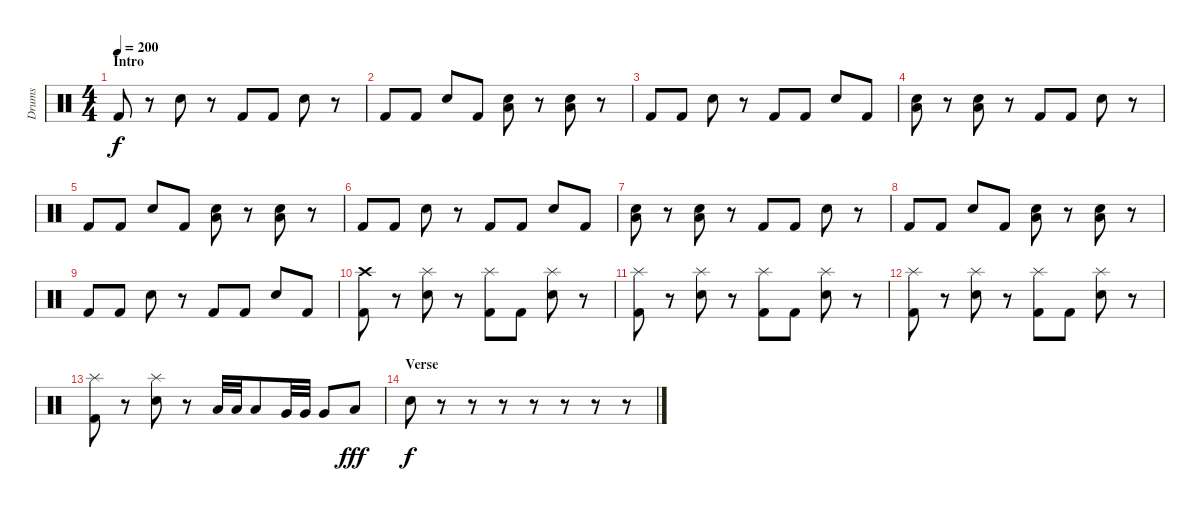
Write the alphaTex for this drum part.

\track ("Drums" "Drums") {instrument percussion}
\staff {score}
\articulation defaults
\ts (4 4)
\section ("" "Intro")
\tempo 200
\clef neutral
\ks c "Kick (hit) 2".8{dy f}
r.8 "Electric Snare (hit)".8 r.8 "Kick (hit) 2".8 "Kick (hit) 2".8 "Electric Snare (hit)".8 r.8 |
"Kick (hit) 2".8 "Kick (hit) 2".8 "Electric Snare (hit)".8 "Kick (hit) 2".8 ("Electric Snare (hit)" "Low Floor Tom (hit)").8 r.8 ("Electric Snare (hit)" "Low Floor Tom (hit)").8 r.8 |
"Kick (hit) 2".8 "Kick (hit) 2".8 "Electric Snare (hit)".8 r.8 "Kick (hit) 2".8 "Kick (hit) 2".8 "Electric Snare (hit)".8 "Kick (hit) 2".8 |
("Electric Snare (hit)" "Low Floor Tom (hit)").8 r.8 ("Electric Snare (hit)" "Low Floor Tom (hit)").8 r.8 "Kick (hit) 2".8 "Kick (hit) 2".8 "Electric Snare (hit)".8 r.8 |
"Kick (hit) 2".8 "Kick (hit) 2".8 "Electric Snare (hit)".8 "Kick (hit) 2".8 ("Electric Snare (hit)" "Low Floor Tom (hit)").8 r.8 ("Electric Snare (hit)" "Low Floor Tom (hit)").8 r.8 |
"Kick (hit) 2".8 "Kick (hit) 2".8 "Electric Snare (hit)".8 r.8 "Kick (hit) 2".8 "Kick (hit) 2".8 "Electric Snare (hit)".8 "Kick (hit) 2".8 |
("Electric Snare (hit)" "Low Floor Tom (hit)").8 r.8 ("Electric Snare (hit)" "Low Floor Tom (hit)").8 r.8 "Kick (hit) 2".8 "Kick (hit) 2".8 "Electric Snare (hit)".8 r.8 |
"Kick (hit) 2".8 "Kick (hit) 2".8 "Electric Snare (hit)".8 "Kick (hit) 2".8 ("Electric Snare (hit)" "Low Floor Tom (hit)").8 r.8 ("Electric Snare (hit)" "Low Floor Tom (hit)").8 r.8 |
"Kick (hit) 2".8 "Kick (hit) 2".8 "Electric Snare (hit)".8 r.8 "Kick (hit) 2".8 "Kick (hit) 2".8 "Electric Snare (hit)".8 "Kick (hit) 2".8 |
("Crash high (hit)" "Kick (hit) 2").8 r.8 ("Splash (hit)" "Electric Snare (hit)").8 r.8 ("Splash (hit)" "Kick (hit) 2").8 "Kick (hit) 2".8 ("Splash (hit)" "Electric Snare (hit)").8 r.8 |
("Splash (hit)" "Kick (hit) 2").8 r.8 ("Splash (hit)" "Electric Snare (hit)").8 r.8 ("Splash (hit)" "Kick (hit) 2").8 "Kick (hit) 2".8 ("Splash (hit)" "Electric Snare (hit)").8 r.8 |
("Splash (hit)" "Kick (hit) 2").8 r.8 ("Splash (hit)" "Electric Snare (hit)").8 r.8 ("Splash (hit)" "Kick (hit) 2").8 "Kick (hit) 2".8 ("Splash (hit)" "Electric Snare (hit)").8 r.8 |
("Splash (hit)" "Kick (hit) 2").8 r.8 ("Splash (hit)" "Electric Snare (hit)").8 r.8 "Low Tom (hit)".32 "Low Tom (hit)".32 "Low Tom (hit)".8 "Very Low Tom (hit)".32 "Very Low Tom (hit)".32 "Very Low Tom (hit)".8 "Low Floor Tom (hit)".8{dy fff} |
\section ("" "Verse")
"Electric Snare (hit)".8{dy f} r.8 r.8 r.8 r.8 r.8 r.8 r.8
